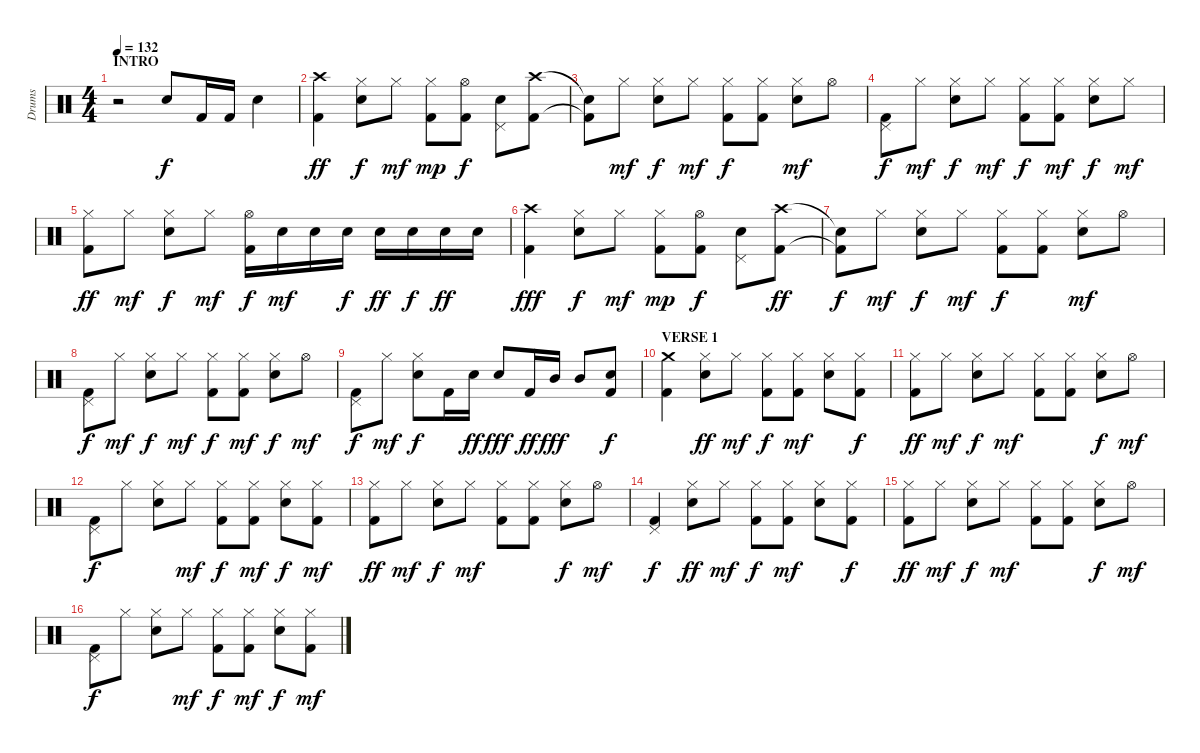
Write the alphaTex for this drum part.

\track ("Drums" "Drums") {instrument percussion}
\staff {score}
\articulation defaults
\ts (4 4)
\section ("" "INTRO")
\tempo 132
\clef neutral
\ks c
r.2{dy f} "Electric Snare (hit)".8 "Kick (hit) 2".16 "Kick (hit) 2".16 "Electric Snare (hit)".4 |
("Crash high (hit)" "Kick (hit) 2").4{dy ff} ("Hi-Hat (closed)" "Electric Snare (hit)").8{dy f} "Hi-Hat (closed)".8{dy mf} ("Hi-Hat (closed)" "Kick (hit) 2").8{dy mp} ("Hi-Hat (open)" "Kick (hit) 2").8{dy f} ("Electric Snare (hit)" "Pedal Hi-Hat (hit)").8 ("Crash high (hit)" "Kick (hit) 2").8 |
("Snare (hit)"{t} "Kick (hit) 2"{t}).8 "Hi-Hat (closed)".8{dy mf} ("Hi-Hat (closed)" "Electric Snare (hit)").8{dy f} "Hi-Hat (closed)".8{dy mf} ("Hi-Hat (closed)" "Kick (hit) 2").8{dy f} ("Hi-Hat (closed)" "Kick (hit) 2").8 ("Hi-Hat (closed)" "Electric Snare (hit)").8{dy mf} "Hi-Hat (open)".8 |
("Pedal Hi-Hat (hit)" "Kick (hit) 2").8{dy f} "Hi-Hat (closed)".8{dy mf} ("Hi-Hat (closed)" "Electric Snare (hit)").8{dy f} "Hi-Hat (closed)".8{dy mf} ("Hi-Hat (closed)" "Kick (hit) 2").8{dy f} ("Hi-Hat (closed)" "Kick (hit) 2").8{dy mf} ("Hi-Hat (closed)" "Electric Snare (hit)").8{dy f} "Hi-Hat (closed)".8{dy mf} |
("Hi-Hat (closed)" "Kick (hit) 2").8{dy ff} "Hi-Hat (closed)".8{dy mf} ("Hi-Hat (closed)" "Electric Snare (hit)").8{dy f} "Hi-Hat (closed)".8{dy mf} ("Hi-Hat (open)" "Kick (hit) 2").16{dy f} "Electric Snare (hit)".16{dy mf} "Electric Snare (hit)".16 "Electric Snare (hit)".16{dy f} "Electric Snare (hit)".16{dy ff} "Electric Snare (hit)".16{dy f} "Electric Snare (hit)".16{dy ff} "Electric Snare (hit)".16 |
("Crash high (hit)" "Kick (hit) 2").4{dy fff} ("Hi-Hat (closed)" "Electric Snare (hit)").8{dy f} "Hi-Hat (closed)".8{dy mf} ("Hi-Hat (closed)" "Kick (hit) 2").8{dy mp} ("Hi-Hat (open)" "Kick (hit) 2").8{dy f} ("Electric Snare (hit)" "Pedal Hi-Hat (hit)").8 ("Crash high (hit)" "Kick (hit) 2").8{dy ff} |
("Snare (hit)"{t} "Kick (hit) 2"{t}).8{dy f} "Hi-Hat (closed)".8{dy mf} ("Hi-Hat (closed)" "Electric Snare (hit)").8{dy f} "Hi-Hat (closed)".8{dy mf} ("Hi-Hat (closed)" "Kick (hit) 2").8{dy f} ("Hi-Hat (closed)" "Kick (hit) 2").8 ("Hi-Hat (closed)" "Electric Snare (hit)").8{dy mf} "Hi-Hat (open)".8 |
("Pedal Hi-Hat (hit)" "Kick (hit) 2").8{dy f} "Hi-Hat (closed)".8{dy mf} ("Hi-Hat (closed)" "Electric Snare (hit)").8{dy f} "Hi-Hat (closed)".8{dy mf} ("Hi-Hat (closed)" "Kick (hit) 2").8{dy f} ("Hi-Hat (closed)" "Kick (hit) 2").8{dy mf} ("Hi-Hat (closed)" "Electric Snare (hit)").8{dy f} "Hi-Hat (open)".8{dy mf} |
("Pedal Hi-Hat (hit)" "Kick (hit) 2").8{dy f} "Hi-Hat (closed)".8{dy mf} ("Hi-Hat (closed)" "Electric Snare (hit)").8{dy f} "Kick (hit) 2".16 "Electric Snare (hit)".16{dy ff} "Electric Snare (hit)".8{dy fff} "Kick (hit) 2".16{dy ff} "Mid Tom (hit)".16{dy fff} "Mid Tom (hit)".8 ("Electric Snare (hit)" "Kick (hit) 2").8{dy f} |
\section ("" "VERSE 1")
("Crash medium (hit)" "Kick (hit) 2").4 ("Hi-Hat (closed)" "Electric Snare (hit)").8{dy ff} "Hi-Hat (closed)".8{dy mf} ("Hi-Hat (closed)" "Kick (hit) 2").8{dy f} ("Hi-Hat (closed)" "Kick (hit) 2").8{dy mf} ("Hi-Hat (closed)" "Electric Snare (hit)").8 ("Hi-Hat (closed)" "Kick (hit) 2").8{dy f} |
("Hi-Hat (closed)" "Kick (hit) 2").8{dy ff} "Hi-Hat (closed)".8{dy mf} ("Hi-Hat (closed)" "Electric Snare (hit)").8{dy f} "Hi-Hat (closed)".8{dy mf} ("Hi-Hat (closed)" "Kick (hit) 2").8 ("Hi-Hat (closed)" "Kick (hit) 2").8 ("Hi-Hat (closed)" "Electric Snare (hit)").8{dy f} "Hi-Hat (open)".8{dy mf} |
("Pedal Hi-Hat (hit)" "Kick (hit) 2").8{dy f} "Hi-Hat (closed)".8 ("Hi-Hat (closed)" "Electric Snare (hit)").8 "Hi-Hat (closed)".8{dy mf} ("Hi-Hat (closed)" "Kick (hit) 2").8{dy f} ("Hi-Hat (closed)" "Kick (hit) 2").8{dy mf} ("Hi-Hat (closed)" "Electric Snare (hit)").8{dy f} ("Hi-Hat (closed)" "Kick (hit) 2").8{dy mf} |
("Hi-Hat (closed)" "Kick (hit) 2").8{dy ff} "Hi-Hat (closed)".8{dy mf} ("Hi-Hat (closed)" "Electric Snare (hit)").8{dy f} "Hi-Hat (closed)".8{dy mf} ("Hi-Hat (closed)" "Kick (hit) 2").8 ("Hi-Hat (closed)" "Kick (hit) 2").8 ("Hi-Hat (closed)" "Electric Snare (hit)").8{dy f} "Hi-Hat (open)".8{dy mf} |
("Pedal Hi-Hat (hit)" "Kick (hit) 2").4{dy f} ("Hi-Hat (closed)" "Electric Snare (hit)").8{dy ff} "Hi-Hat (closed)".8{dy mf} ("Hi-Hat (closed)" "Kick (hit) 2").8{dy f} ("Hi-Hat (closed)" "Kick (hit) 2").8{dy mf} ("Hi-Hat (closed)" "Electric Snare (hit)").8 ("Hi-Hat (closed)" "Kick (hit) 2").8{dy f} |
("Hi-Hat (closed)" "Kick (hit) 2").8{dy ff} "Hi-Hat (closed)".8{dy mf} ("Hi-Hat (closed)" "Electric Snare (hit)").8{dy f} "Hi-Hat (closed)".8{dy mf} ("Hi-Hat (closed)" "Kick (hit) 2").8 ("Hi-Hat (closed)" "Kick (hit) 2").8 ("Hi-Hat (closed)" "Electric Snare (hit)").8{dy f} "Hi-Hat (open)".8{dy mf} |
("Pedal Hi-Hat (hit)" "Kick (hit) 2").8{dy f} "Hi-Hat (closed)".8 ("Hi-Hat (closed)" "Electric Snare (hit)").8 "Hi-Hat (closed)".8{dy mf} ("Hi-Hat (closed)" "Kick (hit) 2").8{dy f} ("Hi-Hat (closed)" "Kick (hit) 2").8{dy mf} ("Hi-Hat (closed)" "Electric Snare (hit)").8{dy f} ("Hi-Hat (closed)" "Kick (hit) 2").8{dy mf}
